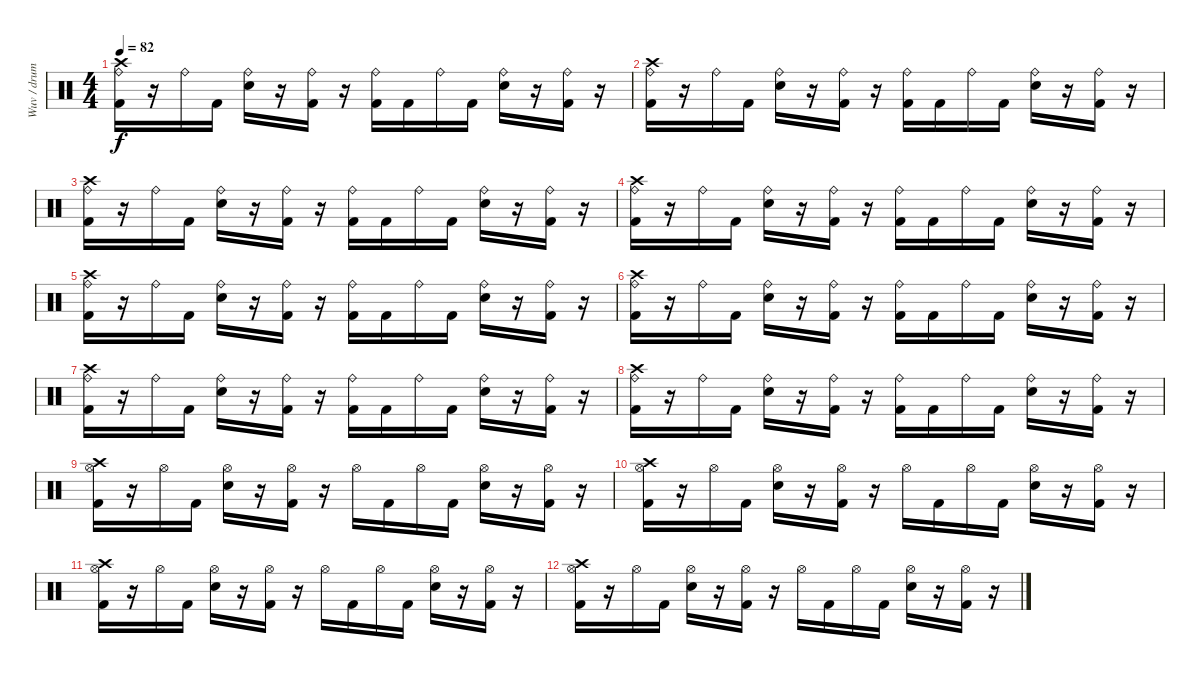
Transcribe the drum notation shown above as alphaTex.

\track ("Wuv / drums" "Wuv / drum") {instrument percussion}
\staff {score}
\articulation defaults
\ts (4 4)
\tempo 82
\clef neutral
\ks c
("Crash high (hit)" "Ride (bell)" "Kick (hit) 2").16{dy f} r.16 "Ride (bell)".16 "Kick (hit) 2".16 ("Ride (bell)" "Snare (hit) 2").16 r.16 ("Ride (bell)" "Kick (hit) 2").16 r.16 ("Ride (bell)" "Kick (hit) 2").16 "Kick (hit) 2".16 "Ride (bell)".16 "Kick (hit) 2".16 ("Ride (bell)" "Snare (hit) 2").16 r.16 ("Ride (bell)" "Kick (hit) 2").16 r.16 |
("Crash high (hit)" "Ride (bell)" "Kick (hit) 2").16 r.16 "Ride (bell)".16 "Kick (hit) 2".16 ("Ride (bell)" "Snare (hit) 2").16 r.16 ("Ride (bell)" "Kick (hit) 2").16 r.16 ("Ride (bell)" "Kick (hit) 2").16 "Kick (hit) 2".16 "Ride (bell)".16 "Kick (hit) 2".16 ("Ride (bell)" "Snare (hit) 2").16 r.16 ("Ride (bell)" "Kick (hit) 2").16 r.16 |
("Crash high (hit)" "Ride (bell)" "Kick (hit) 2").16 r.16 "Ride (bell)".16 "Kick (hit) 2".16 ("Ride (bell)" "Snare (hit) 2").16 r.16 ("Ride (bell)" "Kick (hit) 2").16 r.16 ("Ride (bell)" "Kick (hit) 2").16 "Kick (hit) 2".16 "Ride (bell)".16 "Kick (hit) 2".16 ("Ride (bell)" "Snare (hit) 2").16 r.16 ("Ride (bell)" "Kick (hit) 2").16 r.16 |
("Crash high (hit)" "Ride (bell)" "Kick (hit) 2").16 r.16 "Ride (bell)".16 "Kick (hit) 2".16 ("Ride (bell)" "Snare (hit) 2").16 r.16 ("Ride (bell)" "Kick (hit) 2").16 r.16 ("Ride (bell)" "Kick (hit) 2").16 "Kick (hit) 2".16 "Ride (bell)".16 "Kick (hit) 2".16 ("Ride (bell)" "Snare (hit) 2").16 r.16 ("Ride (bell)" "Kick (hit) 2").16 r.16 |
("Crash high (hit)" "Ride (bell)" "Kick (hit) 2").16 r.16 "Ride (bell)".16 "Kick (hit) 2".16 ("Ride (bell)" "Snare (hit) 2").16 r.16 ("Ride (bell)" "Kick (hit) 2").16 r.16 ("Ride (bell)" "Kick (hit) 2").16 "Kick (hit) 2".16 "Ride (bell)".16 "Kick (hit) 2".16 ("Ride (bell)" "Snare (hit) 2").16 r.16 ("Ride (bell)" "Kick (hit) 2").16 r.16 |
("Crash high (hit)" "Ride (bell)" "Kick (hit) 2").16 r.16 "Ride (bell)".16 "Kick (hit) 2".16 ("Ride (bell)" "Snare (hit) 2").16 r.16 ("Ride (bell)" "Kick (hit) 2").16 r.16 ("Ride (bell)" "Kick (hit) 2").16 "Kick (hit) 2".16 "Ride (bell)".16 "Kick (hit) 2".16 ("Ride (bell)" "Snare (hit) 2").16 r.16 ("Ride (bell)" "Kick (hit) 2").16 r.16 |
("Crash high (hit)" "Ride (bell)" "Kick (hit) 2").16 r.16 "Ride (bell)".16 "Kick (hit) 2".16 ("Ride (bell)" "Snare (hit) 2").16 r.16 ("Ride (bell)" "Kick (hit) 2").16 r.16 ("Ride (bell)" "Kick (hit) 2").16 "Kick (hit) 2".16 "Ride (bell)".16 "Kick (hit) 2".16 ("Ride (bell)" "Snare (hit) 2").16 r.16 ("Ride (bell)" "Kick (hit) 2").16 r.16 |
("Crash high (hit)" "Ride (bell)" "Kick (hit) 2").16 r.16 "Ride (bell)".16 "Kick (hit) 2".16 ("Ride (bell)" "Snare (hit) 2").16 r.16 ("Ride (bell)" "Kick (hit) 2").16 r.16 ("Ride (bell)" "Kick (hit) 2").16 "Kick (hit) 2".16 "Ride (bell)".16 "Kick (hit) 2".16 ("Ride (bell)" "Snare (hit) 2").16 r.16 ("Ride (bell)" "Kick (hit) 2").16 r.16 |
("Crash high (hit)" "Hi-Hat (open)" "Kick (hit) 2").16 r.16 "Hi-Hat (open)".16 "Kick (hit) 2".16 ("Hi-Hat (open)" "Snare (hit) 2").16 r.16 ("Hi-Hat (open)" "Kick (hit) 2").16 r.16 "Hi-Hat (open)".16 "Kick (hit) 2".16 "Hi-Hat (open)".16 "Kick (hit) 2".16 ("Hi-Hat (open)" "Snare (hit) 2").16 r.16 ("Hi-Hat (open)" "Kick (hit) 2").16 r.16 |
("Crash high (hit)" "Hi-Hat (open)" "Kick (hit) 2").16 r.16 "Hi-Hat (open)".16 "Kick (hit) 2".16 ("Hi-Hat (open)" "Snare (hit) 2").16 r.16 ("Hi-Hat (open)" "Kick (hit) 2").16 r.16 "Hi-Hat (open)".16 "Kick (hit) 2".16 "Hi-Hat (open)".16 "Kick (hit) 2".16 ("Hi-Hat (open)" "Snare (hit) 2").16 r.16 ("Hi-Hat (open)" "Kick (hit) 2").16 r.16 |
("Crash high (hit)" "Hi-Hat (open)" "Kick (hit) 2").16 r.16 "Hi-Hat (open)".16 "Kick (hit) 2".16 ("Hi-Hat (open)" "Snare (hit) 2").16 r.16 ("Hi-Hat (open)" "Kick (hit) 2").16 r.16 "Hi-Hat (open)".16 "Kick (hit) 2".16 "Hi-Hat (open)".16 "Kick (hit) 2".16 ("Hi-Hat (open)" "Snare (hit) 2").16 r.16 ("Hi-Hat (open)" "Kick (hit) 2").16 r.16 |
("Crash high (hit)" "Hi-Hat (open)" "Kick (hit) 2").16 r.16 "Hi-Hat (open)".16 "Kick (hit) 2".16 ("Hi-Hat (open)" "Snare (hit) 2").16 r.16 ("Hi-Hat (open)" "Kick (hit) 2").16 r.16 "Hi-Hat (open)".16 "Kick (hit) 2".16 "Hi-Hat (open)".16 "Kick (hit) 2".16 ("Hi-Hat (open)" "Snare (hit) 2").16 r.16 ("Hi-Hat (open)" "Kick (hit) 2").16 r.16
